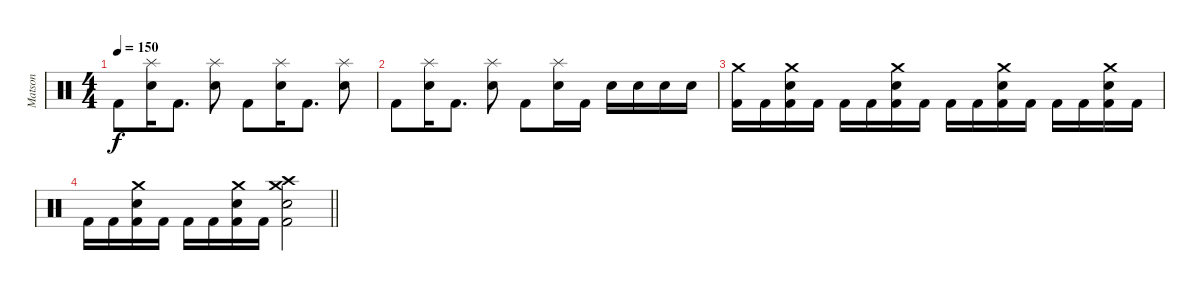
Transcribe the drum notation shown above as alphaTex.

\track ("Matson" "Matson") {instrument percussion}
\staff {score}
\articulation defaults
\ts (4 4)
\tempo 150
\clef neutral
\ks c "Kick (hit) 2".8{dy f}
("Snare (hit) 2" "Splash (hit)").16 "Kick (hit) 2".8{d} ("Snare (hit) 2" "Splash (hit)").8 "Kick (hit) 2".8 ("Snare (hit) 2" "Splash (hit)").16 "Kick (hit) 2".8{d} ("Snare (hit) 2" "Splash (hit)").8 |
"Kick (hit) 2".8 ("Snare (hit) 2" "Splash (hit)").16 "Kick (hit) 2".8{d} ("Snare (hit) 2" "Splash (hit)").8 "Kick (hit) 2".8 ("Snare (hit) 2" "Splash (hit)").16 "Kick (hit) 2".16 "Snare (hit) 2".16 "Snare (hit) 2".16 "Snare (hit) 2".16 "Snare (hit) 2".16 |
("Kick (hit) 2" "Crash medium (hit)").16 "Kick (hit) 2".16 ("Kick (hit) 2" "Snare (hit) 2" "Crash medium (hit)").16 "Kick (hit) 2".16 "Kick (hit) 2".16 "Kick (hit) 2".16 ("Kick (hit) 2" "Snare (hit) 2" "Crash medium (hit)").16 "Kick (hit) 2".16 "Kick (hit) 2".16 "Kick (hit) 2".16 ("Kick (hit) 2" "Snare (hit) 2" "Crash medium (hit)").16 "Kick (hit) 2".16 "Kick (hit) 2".16 "Kick (hit) 2".16 ("Kick (hit) 2" "Snare (hit) 2" "Crash medium (hit)").16 "Kick (hit) 2".16 |
\barLineRight lightlight "Kick (hit) 2".16 "Kick (hit) 2".16
("Kick (hit) 2" "Snare (hit) 2" "Crash medium (hit)").16 "Kick (hit) 2".16 "Kick (hit) 2".16 "Kick (hit) 2".16 ("Kick (hit) 2" "Snare (hit) 2" "Crash medium (hit)").16 "Kick (hit) 2".16 ("Kick (hit) 2" "Snare (hit) 2" "Crash medium (hit)" "Crash high (hit)").2
